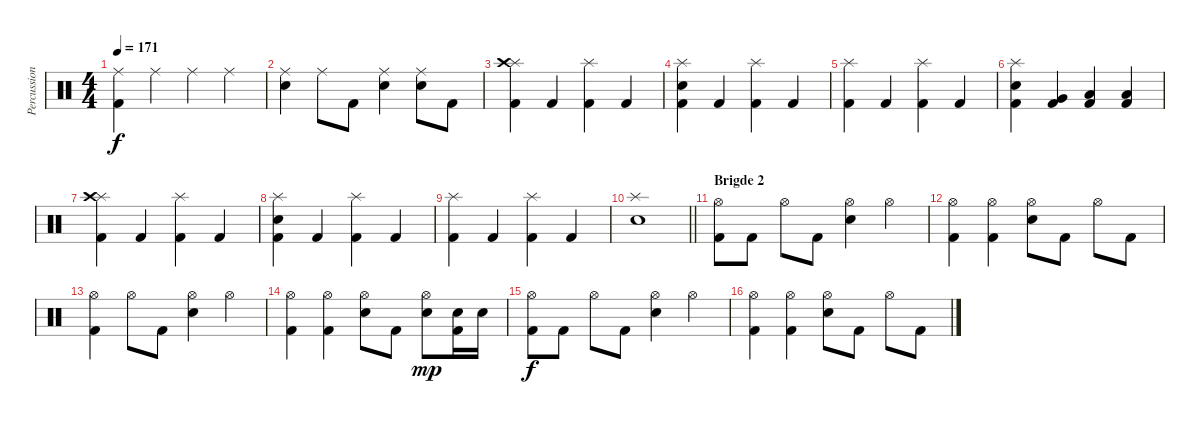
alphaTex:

\track ("Percussion" "Percussion") {instrument percussion}
\staff {score}
\articulation defaults
\ts (4 4)
\tempo 171
\clef neutral
\ks c
("Ride (middle)" "Kick (hit) 2").4{dy f} "Ride (middle)".4 "Ride (middle)".4 "Ride (middle)".4 |
("Ride (middle)" "Snare (hit) 2").4 "Ride (middle)".8 "Kick (hit) 2".8 ("Ride (middle)" "Snare (hit) 2").4 ("Ride (middle)" "Snare (hit) 2").8 "Kick (hit) 2".8 |
("Splash (hit)" "Crash high (hit)" "Kick (hit) 2").4 "Kick (hit) 2".4 ("Splash (hit)" "Kick (hit) 2").4 "Kick (hit) 2".4 |
("Splash (hit)" "Snare (hit) 2" "Kick (hit) 2").4 "Kick (hit) 2".4 ("Splash (hit)" "Kick (hit) 2").4 "Kick (hit) 2".4 |
("Splash (hit)" "Kick (hit) 2").4 "Kick (hit) 2".4 ("Splash (hit)" "Kick (hit) 2").4 "Kick (hit) 2".4 |
("Splash (hit)" "Snare (hit) 2" "Kick (hit) 2").4 ("Very Low Tom (hit)" "Kick (hit) 2").4 ("Low Floor Tom (hit)" "Kick (hit) 2").4 ("Low Floor Tom (hit)" "Kick (hit) 2").4 |
("Splash (hit)" "Crash high (hit)" "Kick (hit) 2").4 "Kick (hit) 2".4 ("Splash (hit)" "Kick (hit) 2").4 "Kick (hit) 2".4 |
("Splash (hit)" "Snare (hit) 2" "Kick (hit) 2").4 "Kick (hit) 2".4 ("Splash (hit)" "Kick (hit) 2").4 "Kick (hit) 2".4 |
("Splash (hit)" "Kick (hit) 2").4 "Kick (hit) 2".4 ("Splash (hit)" "Kick (hit) 2").4 "Kick (hit) 2".4 |
\barLineRight lightlight
("Splash (hit)" "Snare (hit) 2").1 |
\section ("" "Brigde 2")
("Hi-Hat (open)" "Kick (hit) 2").8 "Kick (hit) 2".8 "Hi-Hat (open)".8 "Kick (hit) 2".8 ("Hi-Hat (open)" "Snare (hit) 2").4 "Hi-Hat (open)".4 |
("Hi-Hat (open)" "Kick (hit) 2").4 ("Hi-Hat (open)" "Kick (hit) 2").4 ("Hi-Hat (open)" "Snare (hit) 2").8 "Kick (hit) 2".8 "Hi-Hat (open)".8 "Kick (hit) 2".8 |
("Hi-Hat (open)" "Kick (hit) 2").4 "Hi-Hat (open)".8 "Kick (hit) 2".8 ("Hi-Hat (open)" "Snare (hit) 2").4 "Hi-Hat (open)".4 |
("Hi-Hat (open)" "Kick (hit) 2").4 ("Hi-Hat (open)" "Kick (hit) 2").4 ("Hi-Hat (open)" "Snare (hit) 2").8 "Kick (hit) 2".8 ("Hi-Hat (open)" "Snare (hit) 2").8{dy mp} ("Snare (hit) 2" "Kick (hit) 2").16 "Snare (hit) 2".16 |
("Hi-Hat (open)" "Kick (hit) 2").8{dy f} "Kick (hit) 2".8 "Hi-Hat (open)".8 "Kick (hit) 2".8 ("Hi-Hat (open)" "Snare (hit) 2").4 "Hi-Hat (open)".4 |
("Hi-Hat (open)" "Kick (hit) 2").4 ("Hi-Hat (open)" "Kick (hit) 2").4 ("Hi-Hat (open)" "Snare (hit) 2").8 "Kick (hit) 2".8 "Hi-Hat (open)".8 "Kick (hit) 2".8
